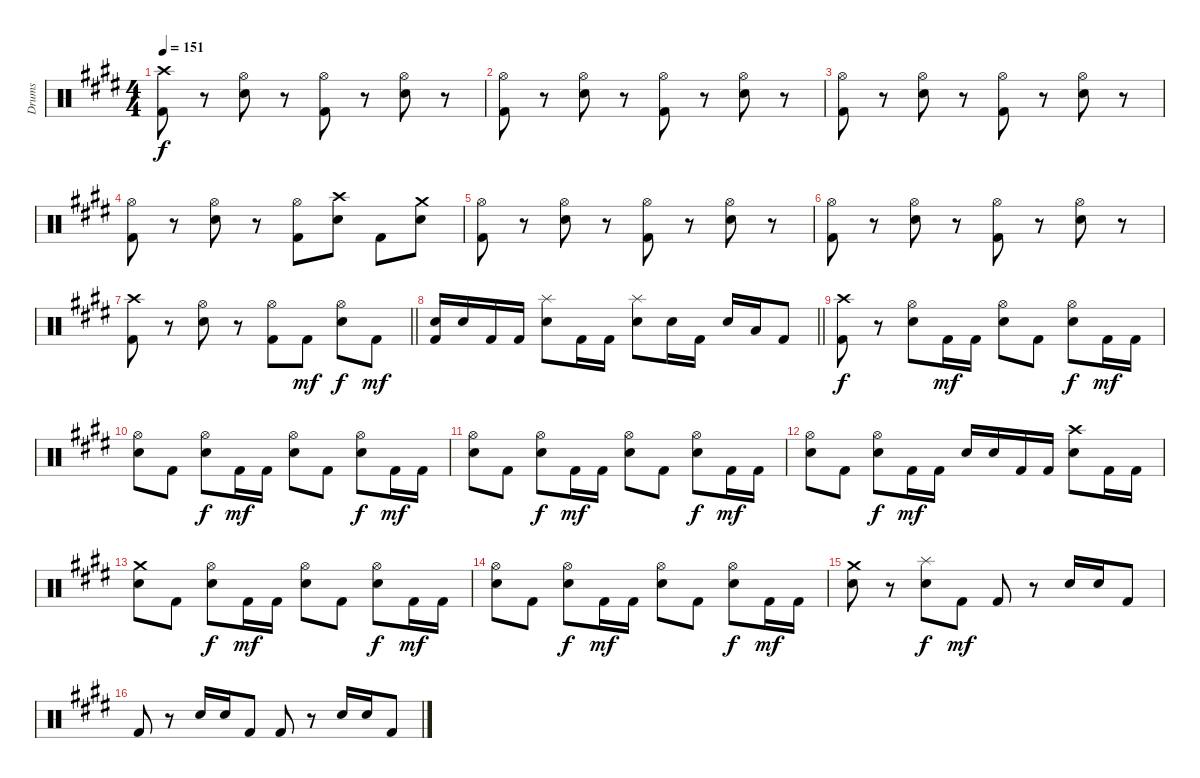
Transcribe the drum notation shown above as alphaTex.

\track ("Drums" "Drums") {instrument percussion}
\staff {score}
\articulation defaults
\ts (4 4)
\tempo 151
\clef neutral
\ks e
("Crash high (hit)" "Kick (hit) 2").8{dy f} r.8 ("Hi-Hat (open)" "Electric Snare (hit)").8 r.8 ("Hi-Hat (open)" "Kick (hit) 2").8 r.8 ("Hi-Hat (open)" "Electric Snare (hit)").8 r.8 |
("Hi-Hat (open)" "Kick (hit) 2").8 r.8 ("Hi-Hat (open)" "Electric Snare (hit)").8 r.8 ("Hi-Hat (open)" "Kick (hit) 2").8 r.8 ("Hi-Hat (open)" "Electric Snare (hit)").8 r.8 |
("Hi-Hat (open)" "Kick (hit) 2").8 r.8 ("Hi-Hat (open)" "Electric Snare (hit)").8 r.8 ("Hi-Hat (open)" "Kick (hit) 2").8 r.8 ("Hi-Hat (open)" "Electric Snare (hit)").8 r.8 |
("Hi-Hat (open)" "Kick (hit) 2").8 r.8 ("Hi-Hat (open)" "Electric Snare (hit)").8 r.8 ("Hi-Hat (open)" "Kick (hit) 2").8 ("Crash high (hit)" "Electric Snare (hit)").8 "Kick (hit) 2".8 ("Crash medium (hit)" "Electric Snare (hit)").8 |
("Hi-Hat (open)" "Kick (hit) 2").8 r.8 ("Hi-Hat (open)" "Electric Snare (hit)").8 r.8 ("Hi-Hat (open)" "Kick (hit) 2").8 r.8 ("Hi-Hat (open)" "Electric Snare (hit)").8 r.8 |
("Hi-Hat (open)" "Kick (hit) 2").8 r.8 ("Hi-Hat (open)" "Electric Snare (hit)").8 r.8 ("Hi-Hat (open)" "Kick (hit) 2").8 r.8 ("Hi-Hat (open)" "Electric Snare (hit)").8 r.8 |
\barLineRight lightlight
("Crash high (hit)" "Kick (hit) 2").8 r.8 ("Hi-Hat (open)" "Electric Snare (hit)").8 r.8 ("Hi-Hat (open)" "Kick (hit) 2").8 "Kick (hit) 2".8{dy mf} ("Hi-Hat (open)" "Electric Snare (hit)").8{dy f} "Kick (hit) 2".8{dy mf} |
\barLineRight lightlight
("Electric Snare (hit)" "Kick (hit) 2").16 "Electric Snare (hit)".16 "Kick (hit) 2".16 "Kick (hit) 2".16 ("Splash (hit)" "Electric Snare (hit)").8 "Kick (hit) 2".16 "Kick (hit) 2".16 ("Splash (hit)" "Electric Snare (hit)").8 "Electric Snare (hit)".16 "Kick (hit) 2".16 "Electric Snare (hit)".16 "Low Tom (hit)".16 "Kick (hit) 2".8 |
("Crash high (hit)" "Kick (hit) 2").8{dy f} r.8 ("Hi-Hat (open)" "Electric Snare (hit)").8 "Kick (hit) 2".16{dy mf} "Kick (hit) 2".16 ("Hi-Hat (open)" "Electric Snare (hit)").8 "Kick (hit) 2".8 ("Hi-Hat (open)" "Electric Snare (hit)").8{dy f} "Kick (hit) 2".16{dy mf} "Kick (hit) 2".16 |
("Hi-Hat (open)" "Electric Snare (hit)").8 "Kick (hit) 2".8 ("Hi-Hat (open)" "Electric Snare (hit)").8{dy f} "Kick (hit) 2".16{dy mf} "Kick (hit) 2".16 ("Hi-Hat (open)" "Electric Snare (hit)").8 "Kick (hit) 2".8 ("Hi-Hat (open)" "Electric Snare (hit)").8{dy f} "Kick (hit) 2".16{dy mf} "Kick (hit) 2".16 |
("Hi-Hat (open)" "Electric Snare (hit)").8 "Kick (hit) 2".8 ("Hi-Hat (open)" "Electric Snare (hit)").8{dy f} "Kick (hit) 2".16{dy mf} "Kick (hit) 2".16 ("Hi-Hat (open)" "Electric Snare (hit)").8 "Kick (hit) 2".8 ("Hi-Hat (open)" "Electric Snare (hit)").8{dy f} "Kick (hit) 2".16{dy mf} "Kick (hit) 2".16 |
("Hi-Hat (open)" "Electric Snare (hit)").8 "Kick (hit) 2".8 ("Hi-Hat (open)" "Electric Snare (hit)").8{dy f} "Kick (hit) 2".16{dy mf} "Kick (hit) 2".16 "Electric Snare (hit)".16 "Electric Snare (hit)".16 "Kick (hit) 2".16 "Kick (hit) 2".16 ("Crash high (hit)" "Electric Snare (hit)").8 "Kick (hit) 2".16 "Kick (hit) 2".16 |
("Crash medium (hit)" "Electric Snare (hit)").8 "Kick (hit) 2".8 ("Hi-Hat (open)" "Electric Snare (hit)").8{dy f} "Kick (hit) 2".16{dy mf} "Kick (hit) 2".16 ("Hi-Hat (open)" "Electric Snare (hit)").8 "Kick (hit) 2".8 ("Hi-Hat (open)" "Electric Snare (hit)").8{dy f} "Kick (hit) 2".16{dy mf} "Kick (hit) 2".16 |
("Hi-Hat (open)" "Electric Snare (hit)").8 "Kick (hit) 2".8 ("Hi-Hat (open)" "Electric Snare (hit)").8{dy f} "Kick (hit) 2".16{dy mf} "Kick (hit) 2".16 ("Hi-Hat (open)" "Electric Snare (hit)").8 "Kick (hit) 2".8 ("Hi-Hat (open)" "Electric Snare (hit)").8{dy f} "Kick (hit) 2".16{dy mf} "Kick (hit) 2".16 |
("Crash medium (hit)" "Electric Snare (hit)").8 r.8 ("Splash (hit)" "Electric Snare (hit)").8{dy f} "Kick (hit) 2".8{dy mf} "Kick (hit) 2".8 r.8 "Electric Snare (hit)".16 "Electric Snare (hit)".16 "Kick (hit) 2".8 |
"Kick (hit) 2".8 r.8 "Electric Snare (hit)".16 "Electric Snare (hit)".16 "Kick (hit) 2".8 "Kick (hit) 2".8 r.8 "Electric Snare (hit)".16 "Electric Snare (hit)".16 "Kick (hit) 2".8
